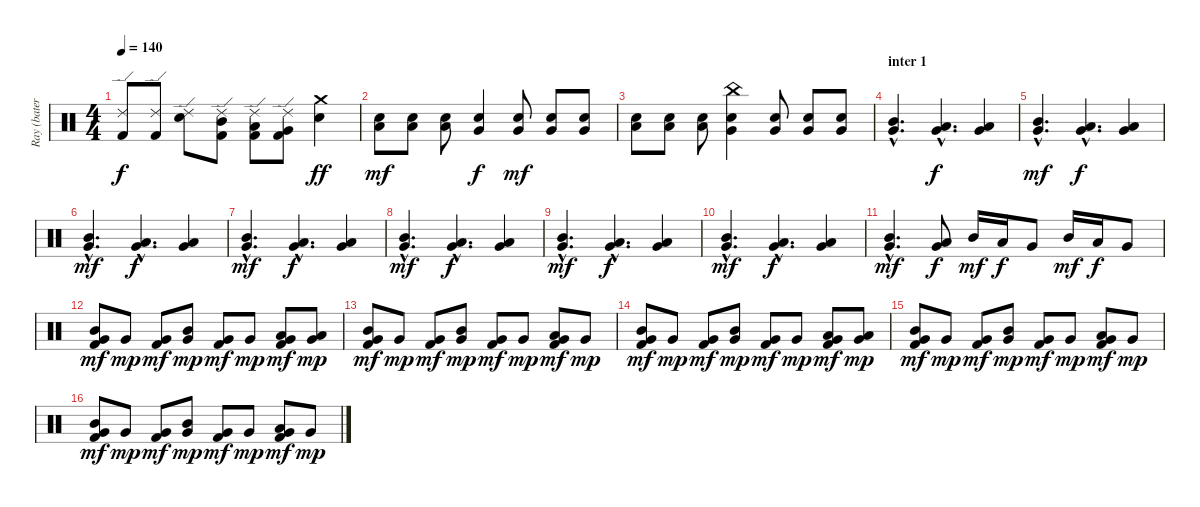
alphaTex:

\track ("Ray (batería)" "Ray (bater") {instrument percussion}
\staff {score}
\articulation defaults
\ts (4 4)
\tempo 140
\clef neutral
\ks c
("Ride (edge) 2" "Kick (hit) 2").8{dy f} ("Ride (edge) 2" "Kick (hit) 2").8 ("Ride (edge) 2" "Snare (hit) 2").8 ("Ride (edge) 2" "Mid Tom (hit)" "Kick (hit) 2").8 ("Ride (edge) 2" "Low Tom (hit)" "Kick (hit) 2").8 ("Ride (edge) 2" "Very Low Tom (hit)" "Kick (hit) 2").8 ("Crash medium (hit)" "Snare (hit) 2").4{dy ff} |
("Low Tom (hit)" "Snare (hit) 2").8{dy mf} ("Low Tom (hit)" "Snare (hit) 2").8 ("Low Tom (hit)" "Snare (hit) 2").8 ("Very Low Tom (hit)" "Snare (hit) 2").4{dy f} ("Very Low Tom (hit)" "Snare (hit) 2").8{dy mf} ("Very Low Tom (hit)" "Snare (hit) 2").8 ("Very Low Tom (hit)" "Snare (hit) 2").8 |
("Low Tom (hit)" "Snare (hit) 2").8 ("Low Tom (hit)" "Snare (hit) 2").8 ("Low Tom (hit)" "Snare (hit) 2").8 ("China (hit)" "Very Low Tom (hit)" "Snare (hit) 2").4 ("Very Low Tom (hit)" "Snare (hit) 2").8 ("Very Low Tom (hit)" "Snare (hit) 2").8 ("Very Low Tom (hit)" "Snare (hit) 2").8 |
\section ("" "inter 1")
("Mid Tom (hit)"{hac} "Very Low Tom (hit)"{hac}).4{d volume 14} ("Low Tom (hit)"{hac} "Very Low Tom (hit)"{hac}).4{d dy f} ("Low Tom (hit)" "Very Low Tom (hit)").4 |
("Mid Tom (hit)"{hac} "Very Low Tom (hit)"{hac}).4{d dy mf} ("Low Tom (hit)"{hac} "Very Low Tom (hit)"{hac}).4{d dy f} ("Low Tom (hit)" "Very Low Tom (hit)").4 |
("Mid Tom (hit)"{hac} "Very Low Tom (hit)"{hac}).4{d dy mf volume 14} ("Low Tom (hit)"{hac} "Very Low Tom (hit)"{hac}).4{d dy f} ("Low Tom (hit)" "Very Low Tom (hit)").4 |
("Mid Tom (hit)"{hac} "Very Low Tom (hit)"{hac}).4{d dy mf} ("Low Tom (hit)"{hac} "Very Low Tom (hit)"{hac}).4{d dy f} ("Low Tom (hit)" "Very Low Tom (hit)").4 |
("Mid Tom (hit)"{hac} "Very Low Tom (hit)"{hac}).4{d dy mf volume 14} ("Low Tom (hit)"{hac} "Very Low Tom (hit)"{hac}).4{d dy f} ("Low Tom (hit)" "Very Low Tom (hit)").4 |
("Mid Tom (hit)"{hac} "Very Low Tom (hit)"{hac}).4{d dy mf} ("Low Tom (hit)"{hac} "Very Low Tom (hit)"{hac}).4{d dy f} ("Low Tom (hit)" "Very Low Tom (hit)").4 |
("Mid Tom (hit)"{hac} "Very Low Tom (hit)"{hac}).4{d dy mf} ("Low Tom (hit)"{hac} "Very Low Tom (hit)"{hac}).4{d dy f} ("Low Tom (hit)" "Very Low Tom (hit)").4 |
("Mid Tom (hit)"{hac} "Very Low Tom (hit)"{hac}).4{d dy mf} ("Low Tom (hit)" "Very Low Tom (hit)").8{dy f} "Mid Tom (hit)".16{dy mf} "Low Tom (hit)".16{dy f} "Very Low Tom (hit)".8 "Mid Tom (hit)".16{dy mf} "Low Tom (hit)".16{dy f} "Very Low Tom (hit)".8 |
("Mid Tom (hit)" "Very Low Tom (hit)" "Kick (hit) 2").8{dy mf} "Very Low Tom (hit)".8{dy mp} ("Very Low Tom (hit)" "Kick (hit) 2").8{dy mf} ("Mid Tom (hit)" "Very Low Tom (hit)").8{dy mp} ("Very Low Tom (hit)" "Kick (hit) 2").8{dy mf} "Very Low Tom (hit)".8{dy mp} ("Low Tom (hit)" "Very Low Tom (hit)" "Kick (hit) 2").8{dy mf} ("Low Tom (hit)" "Very Low Tom (hit)").8{dy mp} |
("Mid Tom (hit)" "Very Low Tom (hit)" "Kick (hit) 2").8{dy mf} "Very Low Tom (hit)".8{dy mp} ("Very Low Tom (hit)" "Kick (hit) 2").8{dy mf} ("Mid Tom (hit)" "Very Low Tom (hit)").8{dy mp} ("Very Low Tom (hit)" "Kick (hit) 2").8{dy mf} "Very Low Tom (hit)".8{dy mp} ("Low Tom (hit)" "Very Low Tom (hit)" "Kick (hit) 2").8{dy mf} "Very Low Tom (hit)".8{dy mp} |
("Mid Tom (hit)" "Very Low Tom (hit)" "Kick (hit) 2").8{dy mf} "Very Low Tom (hit)".8{dy mp} ("Very Low Tom (hit)" "Kick (hit) 2").8{dy mf} ("Mid Tom (hit)" "Very Low Tom (hit)").8{dy mp} ("Very Low Tom (hit)" "Kick (hit) 2").8{dy mf} "Very Low Tom (hit)".8{dy mp} ("Low Tom (hit)" "Very Low Tom (hit)" "Kick (hit) 2").8{dy mf} ("Low Tom (hit)" "Very Low Tom (hit)").8{dy mp} |
("Mid Tom (hit)" "Very Low Tom (hit)" "Kick (hit) 2").8{dy mf} "Very Low Tom (hit)".8{dy mp} ("Very Low Tom (hit)" "Kick (hit) 2").8{dy mf} ("Mid Tom (hit)" "Very Low Tom (hit)").8{dy mp} ("Very Low Tom (hit)" "Kick (hit) 2").8{dy mf} "Very Low Tom (hit)".8{dy mp} ("Low Tom (hit)" "Very Low Tom (hit)" "Kick (hit) 2").8{dy mf} "Very Low Tom (hit)".8{dy mp} |
("Mid Tom (hit)" "Very Low Tom (hit)" "Kick (hit) 2").8{dy mf} "Very Low Tom (hit)".8{dy mp} ("Very Low Tom (hit)" "Kick (hit) 2").8{dy mf} ("Mid Tom (hit)" "Very Low Tom (hit)").8{dy mp} ("Very Low Tom (hit)" "Kick (hit) 2").8{dy mf} "Very Low Tom (hit)".8{dy mp} ("Low Tom (hit)" "Very Low Tom (hit)" "Kick (hit) 2").8{dy mf} "Very Low Tom (hit)".8{dy mp}
